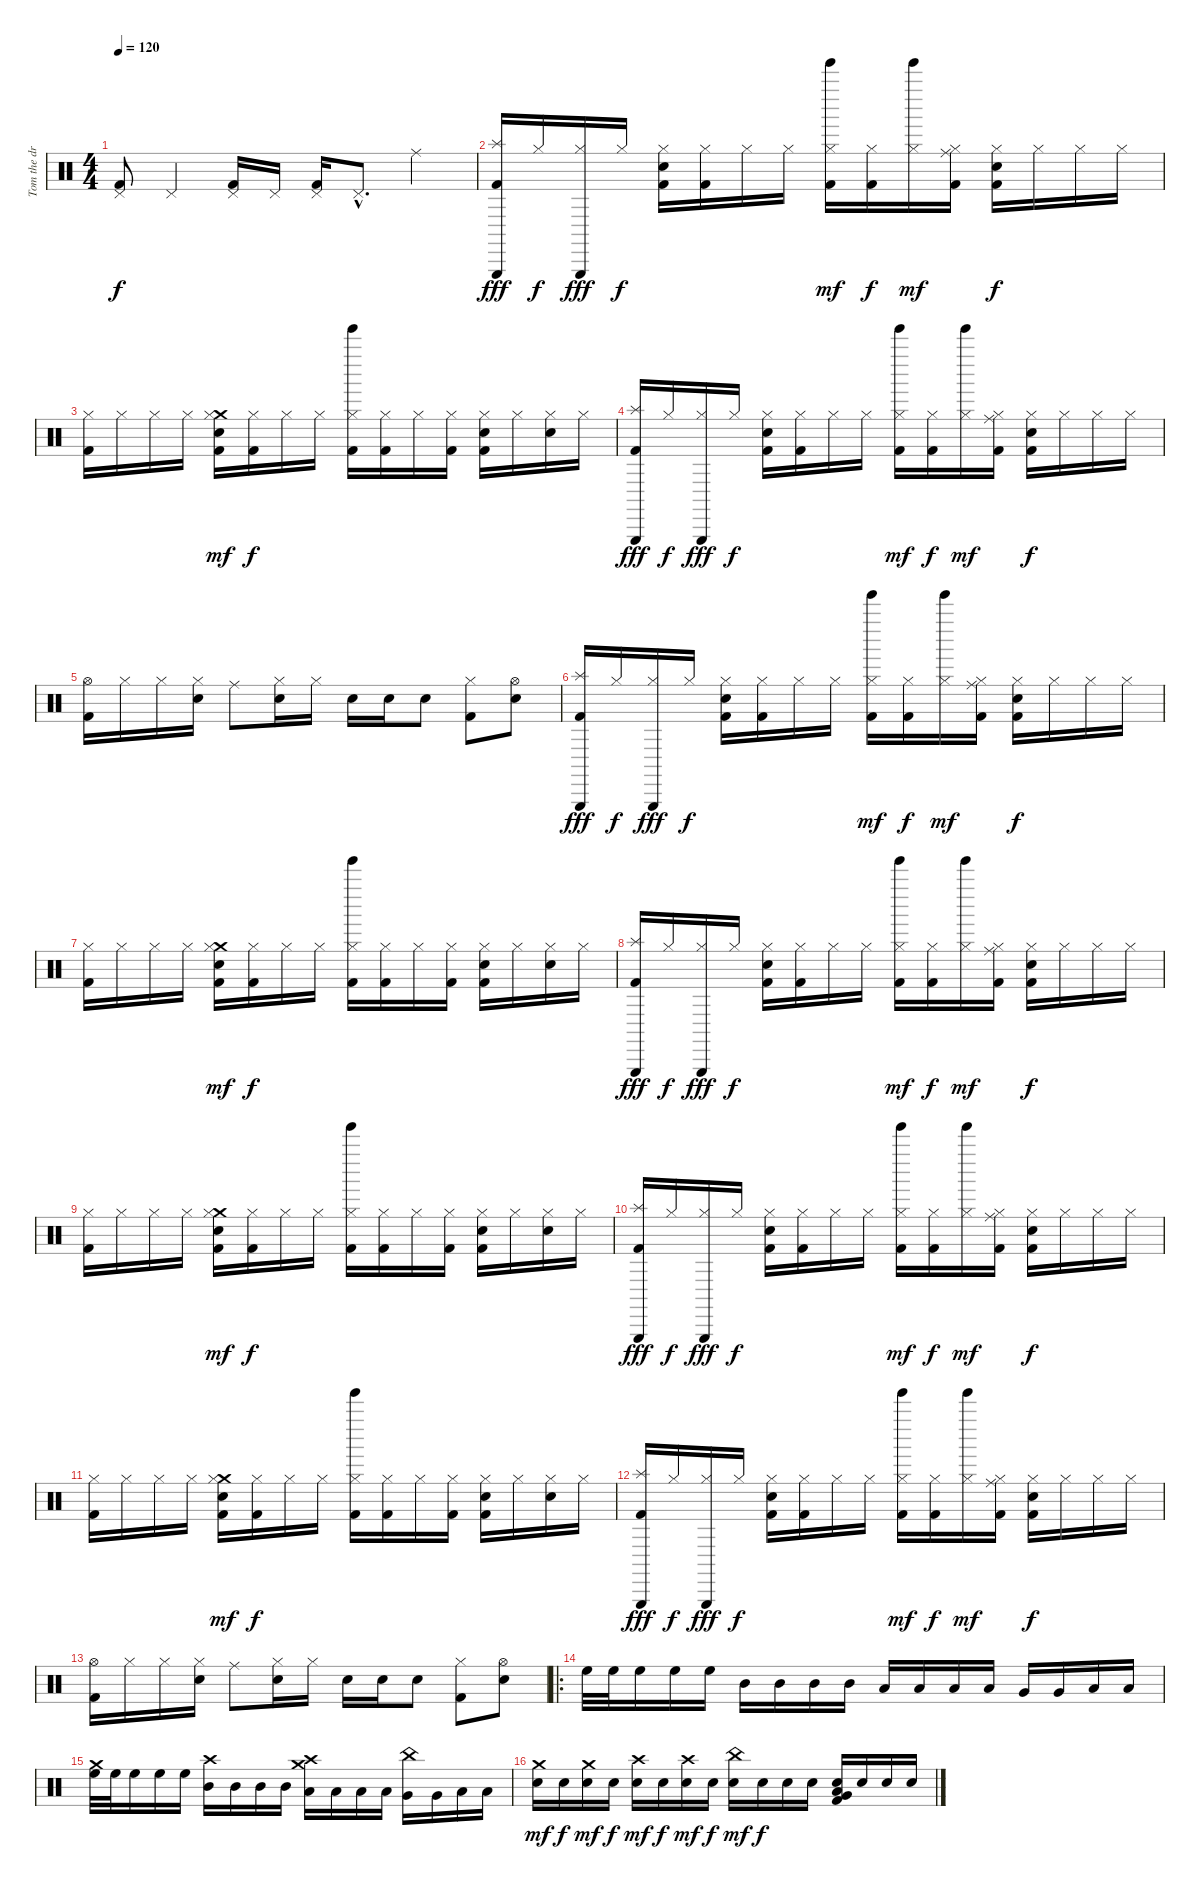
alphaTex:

\track ("Tom the drummer" "Tom the dr") {instrument percussion}
\staff {score}
\articulation defaults
\ts (4 4)
\tempo 120
\clef neutral
\ks c
("Pedal Hi-Hat (hit)" "Kick (hit) 2").8{dy f} "Pedal Hi-Hat (hit)".4 ("Pedal Hi-Hat (hit)" "Kick (hit) 2").16 "Pedal Hi-Hat (hit)".16 ("Pedal Hi-Hat (hit)" "Kick (hit) 2").16 "Pedal Hi-Hat (hit)"{hac}.8{d} "Ride (middle)".4 |
("Triangle (hit)" "Splash (hit)" "Kick (hit) 2").16{dy fff} "Hi-Hat (closed)".16{dy f} ("Triangle (hit)" "Hi-Hat (closed)").16{dy fff} "Hi-Hat (closed)".16{dy f} ("Hi-Hat (closed)" "Snare (hit) 2" "Kick (hit) 2").16 ("Hi-Hat (closed)" "Kick (hit) 2").16 "Hi-Hat (closed)".16 "Hi-Hat (closed)".16 ("Tinkle Bell (hit)" "Hi-Hat (closed)" "Kick (hit) 2").16{dy mf} ("Hi-Hat (closed)" "Kick (hit) 2").16{dy f} ("Tinkle Bell (hit)" "Hi-Hat (closed)").16{dy mf} ("Ride (middle)" "Hi-Hat (closed)" "Kick (hit) 2").16 ("Hi-Hat (closed)" "Snare (hit) 2" "Kick (hit) 2").16{dy f} "Hi-Hat (closed)".16 "Hi-Hat (closed)".16 "Hi-Hat (closed)".16 |
("Hi-Hat (closed)" "Kick (hit) 2").16 "Hi-Hat (closed)".16 "Hi-Hat (closed)".16 "Hi-Hat (closed)".16 ("Crash medium (hit)" "Hi-Hat (closed)" "Snare (hit) 2" "Kick (hit) 2").16{dy mf} ("Hi-Hat (closed)" "Kick (hit) 2").16{dy f} "Hi-Hat (closed)".16 "Hi-Hat (closed)".16 ("Tinkle Bell (hit)" "Hi-Hat (closed)" "Kick (hit) 2").16 ("Hi-Hat (closed)" "Kick (hit) 2").16 "Hi-Hat (closed)".16 ("Hi-Hat (closed)" "Kick (hit) 2").16 ("Hi-Hat (closed)" "Snare (hit) 2" "Kick (hit) 2").16 "Hi-Hat (closed)".16 ("Hi-Hat (closed)" "Snare (hit) 2").16 "Hi-Hat (closed)".16 |
("Triangle (hit)" "Splash (hit)" "Kick (hit) 2").16{dy fff} "Hi-Hat (closed)".16{dy f} ("Triangle (hit)" "Hi-Hat (closed)").16{dy fff} "Hi-Hat (closed)".16{dy f} ("Hi-Hat (closed)" "Snare (hit) 2" "Kick (hit) 2").16 ("Hi-Hat (closed)" "Kick (hit) 2").16 "Hi-Hat (closed)".16 "Hi-Hat (closed)".16 ("Tinkle Bell (hit)" "Hi-Hat (closed)" "Kick (hit) 2").16{dy mf} ("Hi-Hat (closed)" "Kick (hit) 2").16{dy f} ("Tinkle Bell (hit)" "Hi-Hat (closed)").16{dy mf} ("Ride (middle)" "Hi-Hat (closed)" "Kick (hit) 2").16 ("Hi-Hat (closed)" "Snare (hit) 2" "Kick (hit) 2").16{dy f} "Hi-Hat (closed)".16 "Hi-Hat (closed)".16 "Hi-Hat (closed)".16 |
("Hi-Hat (open)" "Kick (hit) 2").16 "Hi-Hat (closed)".16 "Hi-Hat (closed)".16 ("Hi-Hat (closed)" "Snare (hit) 2").16 "Ride (middle)".8 ("Hi-Hat (closed)" "Snare (hit) 2").16 "Hi-Hat (closed)".16 "Snare (hit) 2".16 "Snare (hit) 2".16 "Snare (hit) 2".8 ("Hi-Hat (closed)" "Kick (hit) 2").8 ("Hi-Hat (open)" "Snare (hit) 2").8 |
("Triangle (hit)" "Splash (hit)" "Kick (hit) 2").16{dy fff} "Hi-Hat (closed)".16{dy f} ("Triangle (hit)" "Hi-Hat (closed)").16{dy fff} "Hi-Hat (closed)".16{dy f} ("Hi-Hat (closed)" "Snare (hit) 2" "Kick (hit) 2").16 ("Hi-Hat (closed)" "Kick (hit) 2").16 "Hi-Hat (closed)".16 "Hi-Hat (closed)".16 ("Tinkle Bell (hit)" "Hi-Hat (closed)" "Kick (hit) 2").16{dy mf} ("Hi-Hat (closed)" "Kick (hit) 2").16{dy f} ("Tinkle Bell (hit)" "Hi-Hat (closed)").16{dy mf} ("Ride (middle)" "Hi-Hat (closed)" "Kick (hit) 2").16 ("Hi-Hat (closed)" "Snare (hit) 2" "Kick (hit) 2").16{dy f} "Hi-Hat (closed)".16 "Hi-Hat (closed)".16 "Hi-Hat (closed)".16 |
("Hi-Hat (closed)" "Kick (hit) 2").16 "Hi-Hat (closed)".16 "Hi-Hat (closed)".16 "Hi-Hat (closed)".16 ("Crash medium (hit)" "Hi-Hat (closed)" "Snare (hit) 2" "Kick (hit) 2").16{dy mf} ("Hi-Hat (closed)" "Kick (hit) 2").16{dy f} "Hi-Hat (closed)".16 "Hi-Hat (closed)".16 ("Tinkle Bell (hit)" "Hi-Hat (closed)" "Kick (hit) 2").16 ("Hi-Hat (closed)" "Kick (hit) 2").16 "Hi-Hat (closed)".16 ("Hi-Hat (closed)" "Kick (hit) 2").16 ("Hi-Hat (closed)" "Snare (hit) 2" "Kick (hit) 2").16 "Hi-Hat (closed)".16 ("Hi-Hat (closed)" "Snare (hit) 2").16 "Hi-Hat (closed)".16 |
("Triangle (hit)" "Splash (hit)" "Kick (hit) 2").16{dy fff} "Hi-Hat (closed)".16{dy f} ("Triangle (hit)" "Hi-Hat (closed)").16{dy fff} "Hi-Hat (closed)".16{dy f} ("Hi-Hat (closed)" "Snare (hit) 2" "Kick (hit) 2").16 ("Hi-Hat (closed)" "Kick (hit) 2").16 "Hi-Hat (closed)".16 "Hi-Hat (closed)".16 ("Tinkle Bell (hit)" "Hi-Hat (closed)" "Kick (hit) 2").16{dy mf} ("Hi-Hat (closed)" "Kick (hit) 2").16{dy f} ("Tinkle Bell (hit)" "Hi-Hat (closed)").16{dy mf} ("Ride (middle)" "Hi-Hat (closed)" "Kick (hit) 2").16 ("Hi-Hat (closed)" "Snare (hit) 2" "Kick (hit) 2").16{dy f} "Hi-Hat (closed)".16 "Hi-Hat (closed)".16 "Hi-Hat (closed)".16 |
("Hi-Hat (closed)" "Kick (hit) 2").16 "Hi-Hat (closed)".16 "Hi-Hat (closed)".16 "Hi-Hat (closed)".16 ("Crash medium (hit)" "Hi-Hat (closed)" "Snare (hit) 2" "Kick (hit) 2").16{dy mf} ("Hi-Hat (closed)" "Kick (hit) 2").16{dy f} "Hi-Hat (closed)".16 "Hi-Hat (closed)".16 ("Tinkle Bell (hit)" "Hi-Hat (closed)" "Kick (hit) 2").16 ("Hi-Hat (closed)" "Kick (hit) 2").16 "Hi-Hat (closed)".16 ("Hi-Hat (closed)" "Kick (hit) 2").16 ("Hi-Hat (closed)" "Snare (hit) 2" "Kick (hit) 2").16 "Hi-Hat (closed)".16 ("Hi-Hat (closed)" "Snare (hit) 2").16 "Hi-Hat (closed)".16 |
("Triangle (hit)" "Splash (hit)" "Kick (hit) 2").16{dy fff} "Hi-Hat (closed)".16{dy f} ("Triangle (hit)" "Hi-Hat (closed)").16{dy fff} "Hi-Hat (closed)".16{dy f} ("Hi-Hat (closed)" "Snare (hit) 2" "Kick (hit) 2").16 ("Hi-Hat (closed)" "Kick (hit) 2").16 "Hi-Hat (closed)".16 "Hi-Hat (closed)".16 ("Tinkle Bell (hit)" "Hi-Hat (closed)" "Kick (hit) 2").16{dy mf} ("Hi-Hat (closed)" "Kick (hit) 2").16{dy f} ("Tinkle Bell (hit)" "Hi-Hat (closed)").16{dy mf} ("Ride (middle)" "Hi-Hat (closed)" "Kick (hit) 2").16 ("Hi-Hat (closed)" "Snare (hit) 2" "Kick (hit) 2").16{dy f} "Hi-Hat (closed)".16 "Hi-Hat (closed)".16 "Hi-Hat (closed)".16 |
("Hi-Hat (closed)" "Kick (hit) 2").16 "Hi-Hat (closed)".16 "Hi-Hat (closed)".16 "Hi-Hat (closed)".16 ("Crash medium (hit)" "Hi-Hat (closed)" "Snare (hit) 2" "Kick (hit) 2").16{dy mf} ("Hi-Hat (closed)" "Kick (hit) 2").16{dy f} "Hi-Hat (closed)".16 "Hi-Hat (closed)".16 ("Tinkle Bell (hit)" "Hi-Hat (closed)" "Kick (hit) 2").16 ("Hi-Hat (closed)" "Kick (hit) 2").16 "Hi-Hat (closed)".16 ("Hi-Hat (closed)" "Kick (hit) 2").16 ("Hi-Hat (closed)" "Snare (hit) 2" "Kick (hit) 2").16 "Hi-Hat (closed)".16 ("Hi-Hat (closed)" "Snare (hit) 2").16 "Hi-Hat (closed)".16 |
("Triangle (hit)" "Splash (hit)" "Kick (hit) 2").16{dy fff} "Hi-Hat (closed)".16{dy f} ("Triangle (hit)" "Hi-Hat (closed)").16{dy fff} "Hi-Hat (closed)".16{dy f} ("Hi-Hat (closed)" "Snare (hit) 2" "Kick (hit) 2").16 ("Hi-Hat (closed)" "Kick (hit) 2").16 "Hi-Hat (closed)".16 "Hi-Hat (closed)".16 ("Tinkle Bell (hit)" "Hi-Hat (closed)" "Kick (hit) 2").16{dy mf} ("Hi-Hat (closed)" "Kick (hit) 2").16{dy f} ("Tinkle Bell (hit)" "Hi-Hat (closed)").16{dy mf} ("Ride (middle)" "Hi-Hat (closed)" "Kick (hit) 2").16 ("Hi-Hat (closed)" "Snare (hit) 2" "Kick (hit) 2").16{dy f} "Hi-Hat (closed)".16 "Hi-Hat (closed)".16 "Hi-Hat (closed)".16 |
("Hi-Hat (open)" "Kick (hit) 2").16 "Hi-Hat (closed)".16 "Hi-Hat (closed)".16 ("Hi-Hat (closed)" "Snare (hit) 2").16 "Ride (middle)".8 ("Hi-Hat (closed)" "Snare (hit) 2").16 "Hi-Hat (closed)".16 "Snare (hit) 2".16 "Snare (hit) 2".16 "Snare (hit) 2".8 ("Hi-Hat (closed)" "Kick (hit) 2").8 ("Hi-Hat (open)" "Snare (hit) 2").8 |
\ro "High Floor Tom (hit)".32 "High Floor Tom (hit)".32 "High Floor Tom (hit)".16 "High Floor Tom (hit)".16 "High Floor Tom (hit)".16 "Mid Tom (hit)".16 "Mid Tom (hit)".16 "Mid Tom (hit)".16 "Mid Tom (hit)".16 "Low Tom (hit)".16 "Low Tom (hit)".16 "Low Tom (hit)".16 "Low Tom (hit)".16 "Very Low Tom (hit)".16 "Very Low Tom (hit)".16 "Low Floor Tom (hit)".16 "Low Floor Tom (hit)".16
|
("Crash medium (hit)" "High Floor Tom (hit)").32 "High Floor Tom (hit)".32 "High Floor Tom (hit)".16 "High Floor Tom (hit)".16 "High Floor Tom (hit)".16 ("Crash high (hit)" "Mid Tom (hit)").16 "Mid Tom (hit)".16 "Mid Tom (hit)".16 "Mid Tom (hit)".16 ("Crash high (hit)" "Crash medium (hit)" "Low Tom (hit)").16 "Low Tom (hit)".16 "Low Tom (hit)".16 "Low Tom (hit)".16 ("China (hit)" "Very Low Tom (hit)").16 "Very Low Tom (hit)".16 "Low Floor Tom (hit)".16 "Low Floor Tom (hit)".16 |
("Crash medium (hit)" "Snare (hit) 2").16{dy mf} "Snare (hit) 2".16{dy f} ("Crash medium (hit)" "Snare (hit) 2").16{dy mf} "Snare (hit) 2".16{dy f} ("Crash high (hit)" "Snare (hit) 2").16{dy mf} "Snare (hit) 2".16{dy f} ("Crash high (hit)" "Snare (hit) 2").16{dy mf} "Snare (hit) 2".16{dy f} ("China (hit)" "Snare (hit) 2").16{dy mf} "Snare (hit) 2".16{dy f} "Snare (hit) 2".16 "Snare (hit) 2".16 ("Very Low Tom (hit)" "Low Tom (hit)" "Snare (hit) 2" "Kick (hit) 2").16 "Snare (hit) 2".16 "Snare (hit) 2".16 "Snare (hit) 2".16
